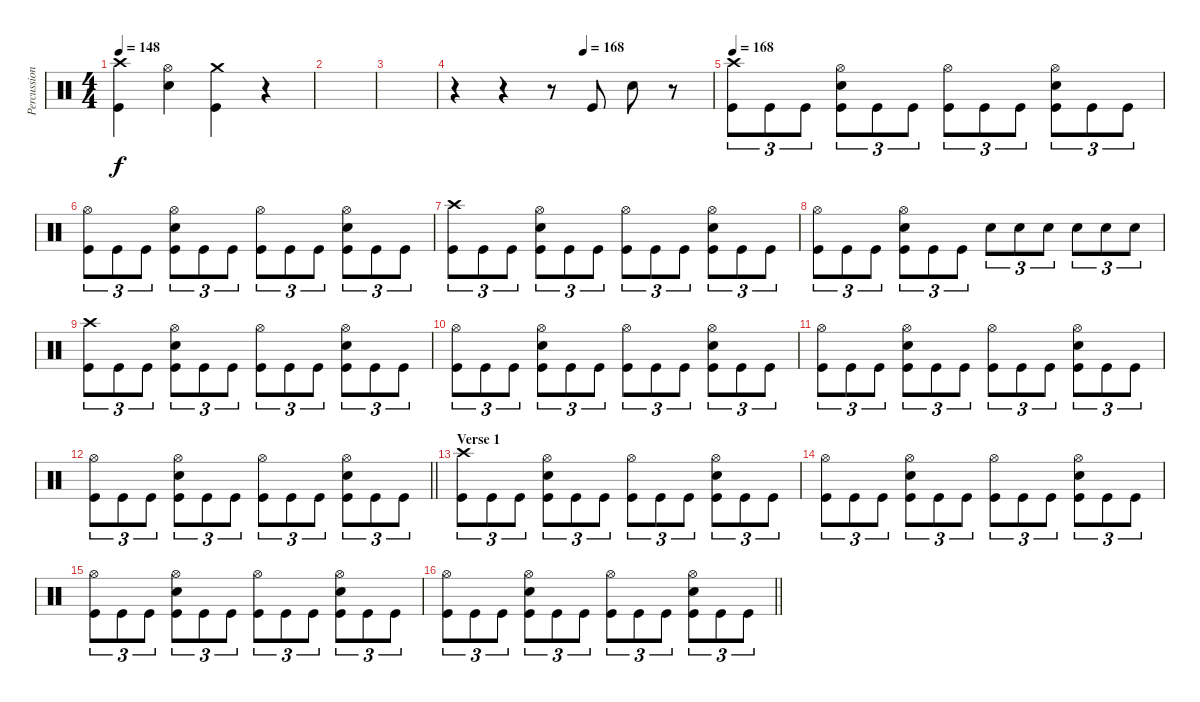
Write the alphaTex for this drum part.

\track ("Percussion" "Percussion") {instrument percussion}
\staff {score}
\articulation defaults
\ts (4 4)
\tempo 148
\clef neutral
\ks c
("Crash high (hit)" "Kick (hit)").4{dy f} ("Electric Snare (hit)" "Hi-Hat (open)").4 ("Crash medium (hit)" "Kick (hit)").4 r.4 |
|
|
\tempo (168 0.5)
r.4 r.4 r.8 "Kick (hit)".8 "Electric Snare (hit)".8 r.8 |
\tempo 168
("Crash high (hit)" "Kick (hit)").8{tu (3 2)} "Kick (hit)".8{tu (3 2)} "Kick (hit)".8{tu (3 2)} ("Hi-Hat (open)" "Electric Snare (hit)" "Kick (hit)").8{tu (3 2)} "Kick (hit)".8{tu (3 2)} "Kick (hit)".8{tu (3 2)} ("Hi-Hat (open)" "Kick (hit)").8{tu (3 2)} "Kick (hit)".8{tu (3 2)} "Kick (hit)".8{tu (3 2)} ("Hi-Hat (open)" "Electric Snare (hit)" "Kick (hit)").8{tu (3 2)} "Kick (hit)".8{tu (3 2)} "Kick (hit)".8{tu (3 2)} |
("Hi-Hat (open)" "Kick (hit)").8{tu (3 2)} "Kick (hit)".8{tu (3 2)} "Kick (hit)".8{tu (3 2)} ("Hi-Hat (open)" "Electric Snare (hit)" "Kick (hit)").8{tu (3 2)} "Kick (hit)".8{tu (3 2)} "Kick (hit)".8{tu (3 2)} ("Hi-Hat (open)" "Kick (hit)").8{tu (3 2)} "Kick (hit)".8{tu (3 2)} "Kick (hit)".8{tu (3 2)} ("Hi-Hat (open)" "Electric Snare (hit)" "Kick (hit)").8{tu (3 2)} "Kick (hit)".8{tu (3 2)} "Kick (hit)".8{tu (3 2)} |
("Crash high (hit)" "Kick (hit)").8{tu (3 2)} "Kick (hit)".8{tu (3 2)} "Kick (hit)".8{tu (3 2)} ("Hi-Hat (open)" "Electric Snare (hit)" "Kick (hit)").8{tu (3 2)} "Kick (hit)".8{tu (3 2)} "Kick (hit)".8{tu (3 2)} ("Hi-Hat (open)" "Kick (hit)").8{tu (3 2)} "Kick (hit)".8{tu (3 2)} "Kick (hit)".8{tu (3 2)} ("Hi-Hat (open)" "Electric Snare (hit)" "Kick (hit)").8{tu (3 2)} "Kick (hit)".8{tu (3 2)} "Kick (hit)".8{tu (3 2)} |
("Hi-Hat (open)" "Kick (hit)").8{tu (3 2)} "Kick (hit)".8{tu (3 2)} "Kick (hit)".8{tu (3 2)} ("Hi-Hat (open)" "Electric Snare (hit)" "Kick (hit)").8{tu (3 2)} "Kick (hit)".8{tu (3 2)} "Kick (hit)".8{tu (3 2)} "Electric Snare (hit)".8{tu (3 2)} "Electric Snare (hit)".8{tu (3 2)} "Electric Snare (hit)".8{tu (3 2)} "Electric Snare (hit)".8{tu (3 2)} "Electric Snare (hit)".8{tu (3 2)} "Electric Snare (hit)".8{tu (3 2)} |
("Crash high (hit)" "Kick (hit)").8{tu (3 2)} "Kick (hit)".8{tu (3 2)} "Kick (hit)".8{tu (3 2)} ("Hi-Hat (open)" "Electric Snare (hit)" "Kick (hit)").8{tu (3 2)} "Kick (hit)".8{tu (3 2)} "Kick (hit)".8{tu (3 2)} ("Hi-Hat (open)" "Kick (hit)").8{tu (3 2)} "Kick (hit)".8{tu (3 2)} "Kick (hit)".8{tu (3 2)} ("Hi-Hat (open)" "Electric Snare (hit)" "Kick (hit)").8{tu (3 2)} "Kick (hit)".8{tu (3 2)} "Kick (hit)".8{tu (3 2)} |
("Hi-Hat (open)" "Kick (hit)").8{tu (3 2)} "Kick (hit)".8{tu (3 2)} "Kick (hit)".8{tu (3 2)} ("Hi-Hat (open)" "Electric Snare (hit)" "Kick (hit)").8{tu (3 2)} "Kick (hit)".8{tu (3 2)} "Kick (hit)".8{tu (3 2)} ("Hi-Hat (open)" "Kick (hit)").8{tu (3 2)} "Kick (hit)".8{tu (3 2)} "Kick (hit)".8{tu (3 2)} ("Hi-Hat (open)" "Electric Snare (hit)" "Kick (hit)").8{tu (3 2)} "Kick (hit)".8{tu (3 2)} "Kick (hit)".8{tu (3 2)} |
("Hi-Hat (open)" "Kick (hit)").8{tu (3 2)} "Kick (hit)".8{tu (3 2)} "Kick (hit)".8{tu (3 2)} ("Hi-Hat (open)" "Electric Snare (hit)" "Kick (hit)").8{tu (3 2)} "Kick (hit)".8{tu (3 2)} "Kick (hit)".8{tu (3 2)} ("Hi-Hat (open)" "Kick (hit)").8{tu (3 2)} "Kick (hit)".8{tu (3 2)} "Kick (hit)".8{tu (3 2)} ("Hi-Hat (open)" "Electric Snare (hit)" "Kick (hit)").8{tu (3 2)} "Kick (hit)".8{tu (3 2)} "Kick (hit)".8{tu (3 2)} |
\barLineRight lightlight
("Hi-Hat (open)" "Kick (hit)").8{tu (3 2)} "Kick (hit)".8{tu (3 2)} "Kick (hit)".8{tu (3 2)} ("Hi-Hat (open)" "Electric Snare (hit)" "Kick (hit)").8{tu (3 2)} "Kick (hit)".8{tu (3 2)} "Kick (hit)".8{tu (3 2)} ("Hi-Hat (open)" "Kick (hit)").8{tu (3 2)} "Kick (hit)".8{tu (3 2)} "Kick (hit)".8{tu (3 2)} ("Hi-Hat (open)" "Electric Snare (hit)" "Kick (hit)").8{tu (3 2)} "Kick (hit)".8{tu (3 2)} "Kick (hit)".8{tu (3 2)} |
\section ("" "Verse 1")
("Crash high (hit)" "Kick (hit)").8{tu (3 2)} "Kick (hit)".8{tu (3 2)} "Kick (hit)".8{tu (3 2)} ("Hi-Hat (open)" "Electric Snare (hit)" "Kick (hit)").8{tu (3 2)} "Kick (hit)".8{tu (3 2)} "Kick (hit)".8{tu (3 2)} ("Hi-Hat (open)" "Kick (hit)").8{tu (3 2)} "Kick (hit)".8{tu (3 2)} "Kick (hit)".8{tu (3 2)} ("Hi-Hat (open)" "Electric Snare (hit)" "Kick (hit)").8{tu (3 2)} "Kick (hit)".8{tu (3 2)} "Kick (hit)".8{tu (3 2)} |
("Hi-Hat (open)" "Kick (hit)").8{tu (3 2)} "Kick (hit)".8{tu (3 2)} "Kick (hit)".8{tu (3 2)} ("Hi-Hat (open)" "Electric Snare (hit)" "Kick (hit)").8{tu (3 2)} "Kick (hit)".8{tu (3 2)} "Kick (hit)".8{tu (3 2)} ("Hi-Hat (open)" "Kick (hit)").8{tu (3 2)} "Kick (hit)".8{tu (3 2)} "Kick (hit)".8{tu (3 2)} ("Hi-Hat (open)" "Electric Snare (hit)" "Kick (hit)").8{tu (3 2)} "Kick (hit)".8{tu (3 2)} "Kick (hit)".8{tu (3 2)} |
("Hi-Hat (open)" "Kick (hit)").8{tu (3 2)} "Kick (hit)".8{tu (3 2)} "Kick (hit)".8{tu (3 2)} ("Hi-Hat (open)" "Electric Snare (hit)" "Kick (hit)").8{tu (3 2)} "Kick (hit)".8{tu (3 2)} "Kick (hit)".8{tu (3 2)} ("Hi-Hat (open)" "Kick (hit)").8{tu (3 2)} "Kick (hit)".8{tu (3 2)} "Kick (hit)".8{tu (3 2)} ("Hi-Hat (open)" "Electric Snare (hit)" "Kick (hit)").8{tu (3 2)} "Kick (hit)".8{tu (3 2)} "Kick (hit)".8{tu (3 2)} |
\barLineRight lightlight
("Hi-Hat (open)" "Kick (hit)").8{tu (3 2)} "Kick (hit)".8{tu (3 2)} "Kick (hit)".8{tu (3 2)} ("Hi-Hat (open)" "Electric Snare (hit)" "Kick (hit)").8{tu (3 2)} "Kick (hit)".8{tu (3 2)} "Kick (hit)".8{tu (3 2)} ("Hi-Hat (open)" "Kick (hit)").8{tu (3 2)} "Kick (hit)".8{tu (3 2)} "Kick (hit)".8{tu (3 2)} ("Hi-Hat (open)" "Electric Snare (hit)" "Kick (hit)").8{tu (3 2)} "Kick (hit)".8{tu (3 2)} "Kick (hit)".8{tu (3 2)}
